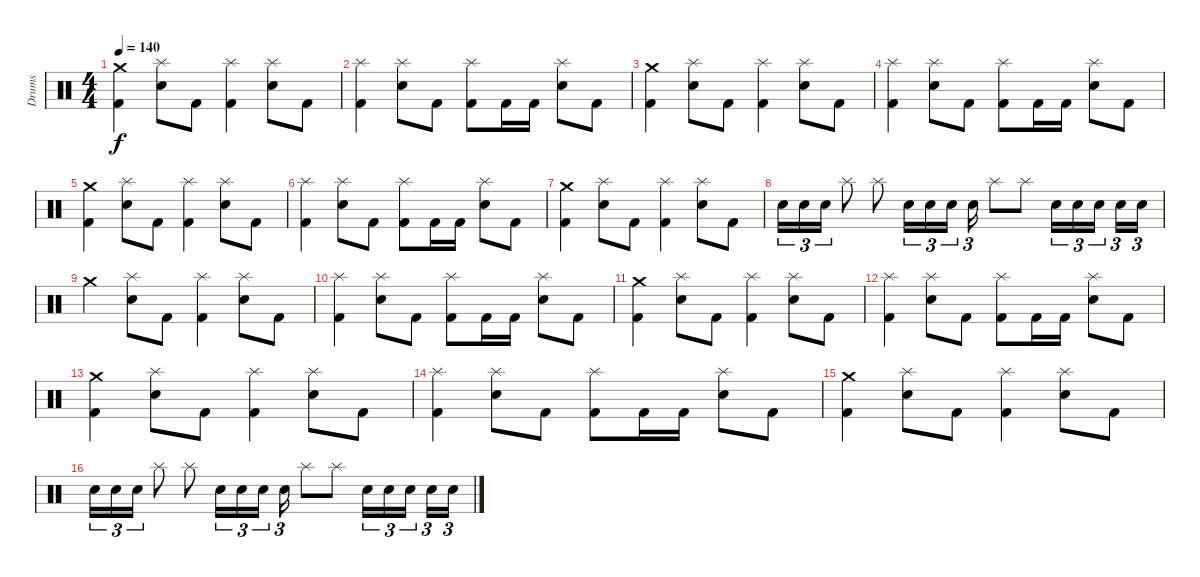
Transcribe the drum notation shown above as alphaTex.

\track ("Drums" "Drums") {instrument percussion}
\staff {score}
\articulation defaults
\ts (4 4)
\tempo 140
\clef neutral
\ks c
("Crash medium (hit)" "Kick (hit) 2").4{dy f} ("Splash (hit)" "Electric Snare (hit)").8 "Kick (hit) 2".8 ("Splash (hit)" "Kick (hit) 2").4 ("Splash (hit)" "Electric Snare (hit)").8 "Kick (hit) 2".8 |
("Splash (hit)" "Kick (hit) 2").4 ("Splash (hit)" "Electric Snare (hit)").8 "Kick (hit) 2".8 ("Splash (hit)" "Kick (hit) 2").8 "Kick (hit) 2".16 "Kick (hit) 2".16 ("Splash (hit)" "Electric Snare (hit)").8 "Kick (hit) 2".8 |
("Crash medium (hit)" "Kick (hit) 2").4 ("Splash (hit)" "Electric Snare (hit)").8 "Kick (hit) 2".8 ("Splash (hit)" "Kick (hit) 2").4 ("Splash (hit)" "Electric Snare (hit)").8 "Kick (hit) 2".8 |
("Splash (hit)" "Kick (hit) 2").4 ("Splash (hit)" "Electric Snare (hit)").8 "Kick (hit) 2".8 ("Splash (hit)" "Kick (hit) 2").8 "Kick (hit) 2".16 "Kick (hit) 2".16 ("Splash (hit)" "Electric Snare (hit)").8 "Kick (hit) 2".8 |
("Crash medium (hit)" "Kick (hit) 2").4 ("Splash (hit)" "Electric Snare (hit)").8 "Kick (hit) 2".8 ("Splash (hit)" "Kick (hit) 2").4 ("Splash (hit)" "Electric Snare (hit)").8 "Kick (hit) 2".8 |
("Splash (hit)" "Kick (hit) 2").4 ("Splash (hit)" "Electric Snare (hit)").8 "Kick (hit) 2".8 ("Splash (hit)" "Kick (hit) 2").8 "Kick (hit) 2".16 "Kick (hit) 2".16 ("Splash (hit)" "Electric Snare (hit)").8 "Kick (hit) 2".8 |
("Crash medium (hit)" "Kick (hit) 2").4 ("Splash (hit)" "Electric Snare (hit)").8 "Kick (hit) 2".8 ("Splash (hit)" "Kick (hit) 2").4 ("Splash (hit)" "Electric Snare (hit)").8 "Kick (hit) 2".8 |
"Electric Snare (hit)".16{tu (3 2)} "Electric Snare (hit)".16{tu (3 2)} "Electric Snare (hit)".16{tu (3 2)} "Splash (hit)".8 "Splash (hit)".8 "Electric Snare (hit)".16{tu (3 2)} "Electric Snare (hit)".16{tu (3 2)} "Electric Snare (hit)".16{tu (3 2)} "Electric Snare (hit)".16{tu (3 2)} "Splash (hit)".8 "Splash (hit)".8 "Electric Snare (hit)".16{tu (3 2)} "Electric Snare (hit)".16{tu (3 2)} "Electric Snare (hit)".16{tu (3 2)} "Electric Snare (hit)".16{tu (3 2)} "Electric Snare (hit)".16{tu (3 2)} |
"Crash medium (hit)".4 ("Splash (hit)" "Electric Snare (hit)").8 "Kick (hit) 2".8 ("Splash (hit)" "Kick (hit) 2").4 ("Splash (hit)" "Electric Snare (hit)").8 "Kick (hit) 2".8 |
("Splash (hit)" "Kick (hit) 2").4 ("Splash (hit)" "Electric Snare (hit)").8 "Kick (hit) 2".8 ("Splash (hit)" "Kick (hit) 2").8 "Kick (hit) 2".16 "Kick (hit) 2".16 ("Splash (hit)" "Electric Snare (hit)").8 "Kick (hit) 2".8 |
("Crash medium (hit)" "Kick (hit) 2").4 ("Splash (hit)" "Electric Snare (hit)").8 "Kick (hit) 2".8 ("Splash (hit)" "Kick (hit) 2").4 ("Splash (hit)" "Electric Snare (hit)").8 "Kick (hit) 2".8 |
("Splash (hit)" "Kick (hit) 2").4 ("Splash (hit)" "Electric Snare (hit)").8 "Kick (hit) 2".8 ("Splash (hit)" "Kick (hit) 2").8 "Kick (hit) 2".16 "Kick (hit) 2".16 ("Splash (hit)" "Electric Snare (hit)").8 "Kick (hit) 2".8 |
("Crash medium (hit)" "Kick (hit) 2").4 ("Splash (hit)" "Electric Snare (hit)").8 "Kick (hit) 2".8 ("Splash (hit)" "Kick (hit) 2").4 ("Splash (hit)" "Electric Snare (hit)").8 "Kick (hit) 2".8 |
("Splash (hit)" "Kick (hit) 2").4 ("Splash (hit)" "Electric Snare (hit)").8 "Kick (hit) 2".8 ("Splash (hit)" "Kick (hit) 2").8 "Kick (hit) 2".16 "Kick (hit) 2".16 ("Splash (hit)" "Electric Snare (hit)").8 "Kick (hit) 2".8 |
("Crash medium (hit)" "Kick (hit) 2").4 ("Splash (hit)" "Electric Snare (hit)").8 "Kick (hit) 2".8 ("Splash (hit)" "Kick (hit) 2").4 ("Splash (hit)" "Electric Snare (hit)").8 "Kick (hit) 2".8 |
"Electric Snare (hit)".16{tu (3 2)} "Electric Snare (hit)".16{tu (3 2)} "Electric Snare (hit)".16{tu (3 2)} "Splash (hit)".8 "Splash (hit)".8 "Electric Snare (hit)".16{tu (3 2)} "Electric Snare (hit)".16{tu (3 2)} "Electric Snare (hit)".16{tu (3 2)} "Electric Snare (hit)".16{tu (3 2)} "Splash (hit)".8 "Splash (hit)".8 "Electric Snare (hit)".16{tu (3 2)} "Electric Snare (hit)".16{tu (3 2)} "Electric Snare (hit)".16{tu (3 2)} "Electric Snare (hit)".16{tu (3 2)} "Electric Snare (hit)".16{tu (3 2)}
